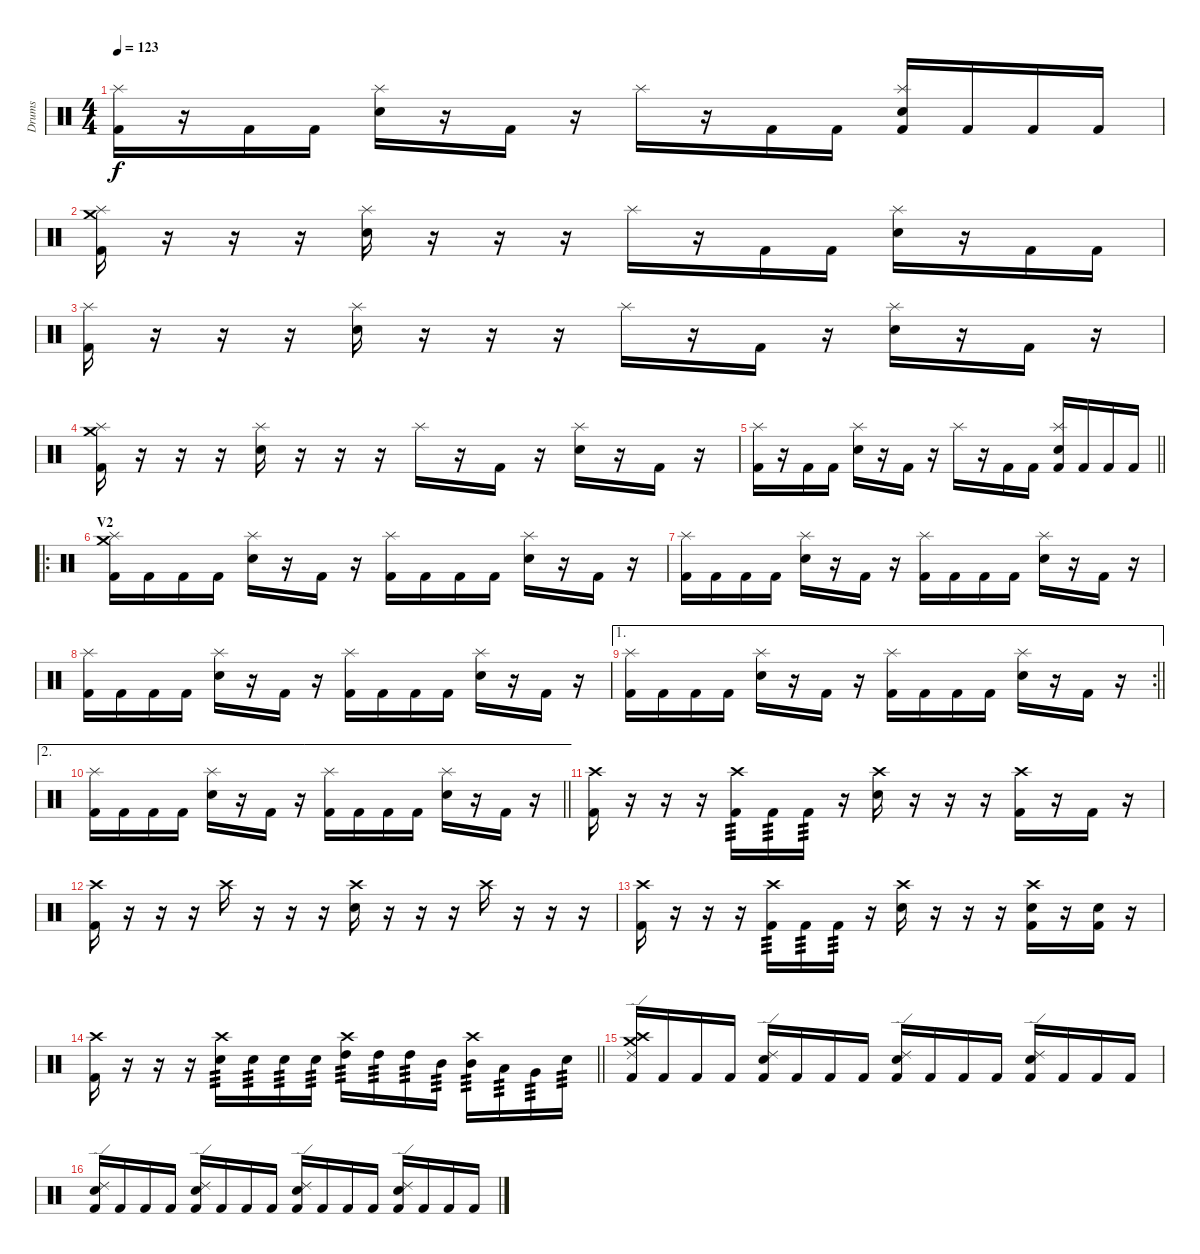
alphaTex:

\track ("Drums" "Drums") {instrument percussion}
\staff {score}
\articulation defaults
\ts (4 4)
\tempo 123
\clef neutral
\ks c
("Kick (hit) 2" "Splash (hit)").16{dy f} r.16 "Kick (hit) 2".16 "Kick (hit) 2".16 ("Snare (hit) 2" "Splash (hit)").16 r.16 "Kick (hit) 2".16 r.16 "Splash (hit)".16 r.16 "Kick (hit) 2".16 "Kick (hit) 2".16 ("Kick (hit) 2" "Snare (hit) 2" "Splash (hit)").16 "Kick (hit) 2".16 "Kick (hit) 2".16 "Kick (hit) 2".16 |
("Kick (hit) 2" "Splash (hit)" "Crash medium (hit)").16 r.16 r.16 r.16 ("Snare (hit) 2" "Splash (hit)").16 r.16 r.16 r.16 "Splash (hit)".16 r.16 "Kick (hit) 2".16 "Kick (hit) 2".16 ("Snare (hit) 2" "Splash (hit)").16 r.16 "Kick (hit) 2".16 "Kick (hit) 2".16 |
("Kick (hit) 2" "Splash (hit)").16 r.16 r.16 r.16 ("Snare (hit) 2" "Splash (hit)").16 r.16 r.16 r.16 "Splash (hit)".16 r.16 "Kick (hit) 2".16 r.16 ("Snare (hit) 2" "Splash (hit)").16 r.16 "Kick (hit) 2".16 r.16 |
("Kick (hit) 2" "Splash (hit)" "Crash medium (hit)").16 r.16 r.16 r.16 ("Snare (hit) 2" "Splash (hit)").16 r.16 r.16 r.16 "Splash (hit)".16 r.16 "Kick (hit) 2".16 r.16 ("Snare (hit) 2" "Splash (hit)").16 r.16 "Kick (hit) 2".16 r.16 |
\barLineRight lightlight
("Kick (hit) 2" "Splash (hit)").16 r.16 "Kick (hit) 2".16 "Kick (hit) 2".16 ("Snare (hit) 2" "Splash (hit)").16 r.16 "Kick (hit) 2".16 r.16 "Splash (hit)".16 r.16 "Kick (hit) 2".16 "Kick (hit) 2".16 ("Kick (hit) 2" "Snare (hit) 2" "Splash (hit)").16 "Kick (hit) 2".16 "Kick (hit) 2".16 "Kick (hit) 2".16 |
\ro
\section ("" "V2")
("Kick (hit) 2" "Splash (hit)" "Crash medium (hit)").16 "Kick (hit) 2".16 "Kick (hit) 2".16 "Kick (hit) 2".16 ("Snare (hit) 2" "Splash (hit)").16 r.16 "Kick (hit) 2".16 r.16 ("Kick (hit) 2" "Splash (hit)").16 "Kick (hit) 2".16 "Kick (hit) 2".16 "Kick (hit) 2".16 ("Snare (hit) 2" "Splash (hit)").16 r.16 "Kick (hit) 2".16 r.16 |
("Kick (hit) 2" "Splash (hit)").16 "Kick (hit) 2".16 "Kick (hit) 2".16 "Kick (hit) 2".16 ("Snare (hit) 2" "Splash (hit)").16 r.16 "Kick (hit) 2".16 r.16 ("Kick (hit) 2" "Splash (hit)").16 "Kick (hit) 2".16 "Kick (hit) 2".16 "Kick (hit) 2".16 ("Snare (hit) 2" "Splash (hit)").16 r.16 "Kick (hit) 2".16 r.16 |
("Kick (hit) 2" "Splash (hit)").16 "Kick (hit) 2".16 "Kick (hit) 2".16 "Kick (hit) 2".16 ("Snare (hit) 2" "Splash (hit)").16 r.16 "Kick (hit) 2".16 r.16 ("Kick (hit) 2" "Splash (hit)").16 "Kick (hit) 2".16 "Kick (hit) 2".16 "Kick (hit) 2".16 ("Snare (hit) 2" "Splash (hit)").16 r.16 "Kick (hit) 2".16 r.16 |
\ae 1
\rc 2
\barLineRight lightlight
("Kick (hit) 2" "Splash (hit)").16 "Kick (hit) 2".16 "Kick (hit) 2".16 "Kick (hit) 2".16 ("Snare (hit) 2" "Splash (hit)").16 r.16 "Kick (hit) 2".16 r.16 ("Kick (hit) 2" "Splash (hit)").16 "Kick (hit) 2".16 "Kick (hit) 2".16 "Kick (hit) 2".16 ("Snare (hit) 2" "Splash (hit)").16 r.16 "Kick (hit) 2".16 r.16 |
\ae 2
\barLineRight lightlight
("Kick (hit) 2" "Splash (hit)").16 "Kick (hit) 2".16 "Kick (hit) 2".16 "Kick (hit) 2".16 ("Snare (hit) 2" "Splash (hit)").16 r.16 "Kick (hit) 2".16 r.16 ("Kick (hit) 2" "Splash (hit)").16 "Kick (hit) 2".16 "Kick (hit) 2".16 "Kick (hit) 2".16 ("Snare (hit) 2" "Splash (hit)").16 r.16 "Kick (hit) 2".16 r.16 |
\section ("" "")
("Kick (hit) 2" "Crash high (hit)").16 r.16 r.16 r.16 ("Kick (hit) 2" "Crash high (hit)").16{tp 3} "Kick (hit) 2".16{tp 3} "Kick (hit) 2".16{tp 3} r.16 ("Snare (hit) 2" "Crash high (hit)").16 r.16 r.16 r.16 ("Kick (hit) 2" "Crash high (hit)").16 r.16 "Kick (hit) 2".16 r.16 |
("Kick (hit) 2" "Crash high (hit)").16 r.16 r.16 r.16 "Crash high (hit)".16 r.16 r.16 r.16 ("Snare (hit) 2" "Crash high (hit)").16 r.16 r.16 r.16 "Crash high (hit)".16 r.16 r.16 r.16 |
("Kick (hit) 2" "Crash high (hit)").16 r.16 r.16 r.16 ("Kick (hit) 2" "Crash high (hit)").16{tp 3} "Kick (hit) 2".16{tp 3} "Kick (hit) 2".16{tp 3} r.16 ("Snare (hit) 2" "Crash high (hit)").16 r.16 r.16 r.16 ("Kick (hit) 2" "Snare (hit) 2" "Crash high (hit)").16 r.16 ("Kick (hit) 2" "Snare (hit) 2").16 r.16 |
\barLineRight lightlight
("Kick (hit) 2" "Crash high (hit)").16 r.16 r.16 r.16 ("Snare (hit) 2" "Crash high (hit)").16{tp 3} "Snare (hit) 2".16{tp 3} "Snare (hit) 2".16{tp 3} "Snare (hit) 2".16{tp 3} ("High Tom (hit)" "Crash high (hit)").16{tp 3} "High Tom (hit)".16{tp 3} "High Tom (hit)".16{tp 3} "Mid Tom (hit)".16{tp 3} ("Mid Tom (hit)" "Crash high (hit)").16{tp 3} "Low Tom (hit)".16{tp 3} "Very Low Tom (hit)".16{tp 3} "Snare (hit) 2".16{tp 3} |
\section ("" "")
("Kick (hit) 2" "Ride (edge) 2" "Crash high (hit)" "Crash medium (hit)").16 "Kick (hit) 2".16 "Kick (hit) 2".16 "Kick (hit) 2".16 ("Kick (hit) 2" "Snare (hit) 2" "Ride (edge) 2").16 "Kick (hit) 2".16 "Kick (hit) 2".16 "Kick (hit) 2".16 ("Kick (hit) 2" "Snare (hit) 2" "Ride (edge) 2").16 "Kick (hit) 2".16 "Kick (hit) 2".16 "Kick (hit) 2".16 ("Kick (hit) 2" "Snare (hit) 2" "Ride (edge) 2").16 "Kick (hit) 2".16 "Kick (hit) 2".16 "Kick (hit) 2".16 |
("Kick (hit) 2" "Snare (hit) 2" "Ride (edge) 2").16 "Kick (hit) 2".16 "Kick (hit) 2".16 "Kick (hit) 2".16 ("Kick (hit) 2" "Snare (hit) 2" "Ride (edge) 2").16 "Kick (hit) 2".16 "Kick (hit) 2".16 "Kick (hit) 2".16 ("Kick (hit) 2" "Snare (hit) 2" "Ride (edge) 2").16 "Kick (hit) 2".16 "Kick (hit) 2".16 "Kick (hit) 2".16 ("Kick (hit) 2" "Snare (hit) 2" "Ride (edge) 2").16 "Kick (hit) 2".16 "Kick (hit) 2".16 "Kick (hit) 2".16
